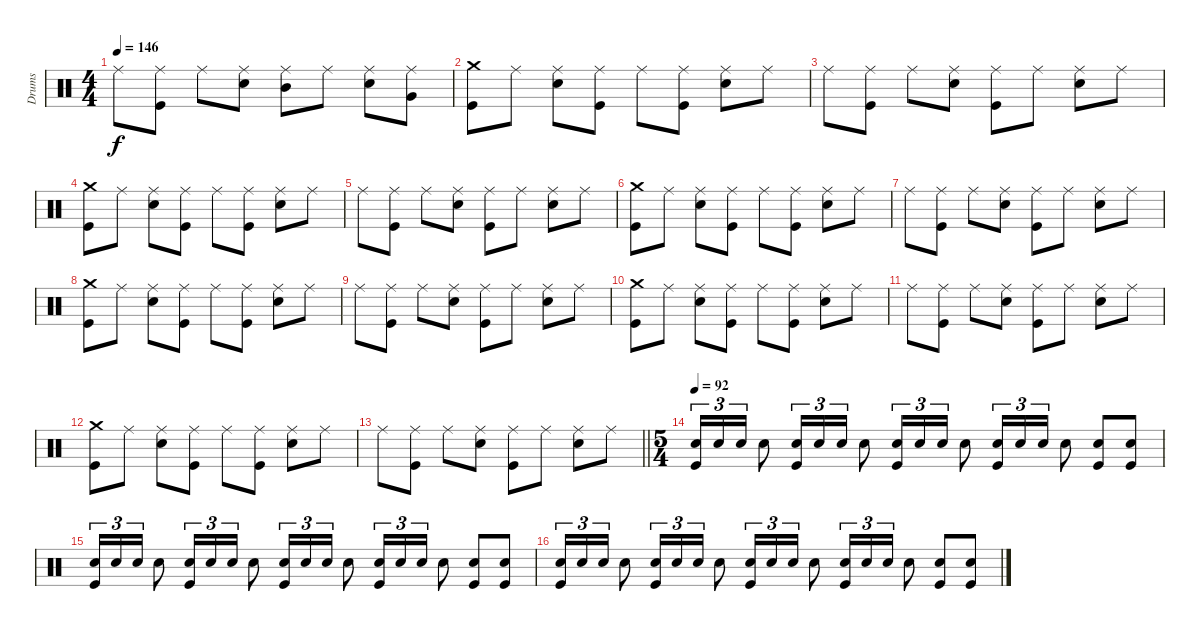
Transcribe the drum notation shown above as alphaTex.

\track ("Drums" "Drums") {instrument percussion}
\staff {score}
\articulation defaults
\ts (4 4)
\tempo 146
\clef neutral
\ks c "Ride (middle)".8{dy f}
("Ride (middle)" "Kick (hit)").8 "Ride (middle)".8 ("Ride (middle)" "Electric Snare (hit)").8 ("Ride (middle)" "Mid Tom (hit)").8 "Ride (middle)".8 ("Ride (middle)" "Electric Snare (hit)").8 ("Ride (middle)" "Very Low Tom (hit)").8 |
("Crash medium (hit)" "Kick (hit)").8 "Ride (middle)".8 ("Ride (middle)" "Electric Snare (hit)").8 ("Ride (middle)" "Kick (hit)").8 "Ride (middle)".8 ("Ride (middle)" "Kick (hit)").8 ("Ride (middle)" "Electric Snare (hit)").8 "Ride (middle)".8 |
"Ride (middle)".8 ("Ride (middle)" "Kick (hit)").8 "Ride (middle)".8 ("Ride (middle)" "Electric Snare (hit)").8 ("Ride (middle)" "Kick (hit)").8 "Ride (middle)".8 ("Ride (middle)" "Electric Snare (hit)").8 "Ride (middle)".8 |
("Crash medium (hit)" "Kick (hit)").8 "Ride (middle)".8 ("Ride (middle)" "Electric Snare (hit)").8 ("Ride (middle)" "Kick (hit)").8 "Ride (middle)".8 ("Ride (middle)" "Kick (hit)").8 ("Ride (middle)" "Electric Snare (hit)").8 "Ride (middle)".8 |
"Ride (middle)".8 ("Ride (middle)" "Kick (hit)").8 "Ride (middle)".8 ("Ride (middle)" "Electric Snare (hit)").8 ("Ride (middle)" "Kick (hit)").8 "Ride (middle)".8 ("Ride (middle)" "Electric Snare (hit)").8 "Ride (middle)".8 |
("Crash medium (hit)" "Kick (hit)").8 "Ride (middle)".8 ("Ride (middle)" "Electric Snare (hit)").8 ("Ride (middle)" "Kick (hit)").8 "Ride (middle)".8 ("Ride (middle)" "Kick (hit)").8 ("Ride (middle)" "Electric Snare (hit)").8 "Ride (middle)".8 |
"Ride (middle)".8 ("Ride (middle)" "Kick (hit)").8 "Ride (middle)".8 ("Ride (middle)" "Electric Snare (hit)").8 ("Ride (middle)" "Kick (hit)").8 "Ride (middle)".8 ("Ride (middle)" "Electric Snare (hit)").8 "Ride (middle)".8 |
("Crash medium (hit)" "Kick (hit)").8 "Ride (middle)".8 ("Ride (middle)" "Electric Snare (hit)").8 ("Ride (middle)" "Kick (hit)").8 "Ride (middle)".8 ("Ride (middle)" "Kick (hit)").8 ("Ride (middle)" "Electric Snare (hit)").8 "Ride (middle)".8 |
"Ride (middle)".8 ("Ride (middle)" "Kick (hit)").8 "Ride (middle)".8 ("Ride (middle)" "Electric Snare (hit)").8 ("Ride (middle)" "Kick (hit)").8 "Ride (middle)".8 ("Ride (middle)" "Electric Snare (hit)").8 "Ride (middle)".8 |
("Crash medium (hit)" "Kick (hit)").8 "Ride (middle)".8 ("Ride (middle)" "Electric Snare (hit)").8 ("Ride (middle)" "Kick (hit)").8 "Ride (middle)".8 ("Ride (middle)" "Kick (hit)").8 ("Ride (middle)" "Electric Snare (hit)").8 "Ride (middle)".8 |
"Ride (middle)".8 ("Ride (middle)" "Kick (hit)").8 "Ride (middle)".8 ("Ride (middle)" "Electric Snare (hit)").8 ("Ride (middle)" "Kick (hit)").8 "Ride (middle)".8 ("Ride (middle)" "Electric Snare (hit)").8 "Ride (middle)".8 |
("Crash medium (hit)" "Kick (hit)").8 "Ride (middle)".8 ("Ride (middle)" "Electric Snare (hit)").8 ("Ride (middle)" "Kick (hit)").8 "Ride (middle)".8 ("Ride (middle)" "Kick (hit)").8 ("Ride (middle)" "Electric Snare (hit)").8 "Ride (middle)".8 |
\barLineRight lightlight "Ride (middle)".8
("Ride (middle)" "Kick (hit)").8 "Ride (middle)".8 ("Ride (middle)" "Electric Snare (hit)").8 ("Ride (middle)" "Kick (hit)").8 "Ride (middle)".8 ("Ride (middle)" "Electric Snare (hit)").8 "Ride (middle)".8 |
\ts (5 4)
\tempo 92
("Electric Snare (hit)" "Kick (hit)").16{tu (3 2)} "Electric Snare (hit)".16{tu (3 2)} "Electric Snare (hit)".16{tu (3 2)} "Electric Snare (hit)".8 ("Electric Snare (hit)" "Kick (hit)").16{tu (3 2)} "Electric Snare (hit)".16{tu (3 2)} "Electric Snare (hit)".16{tu (3 2)} "Electric Snare (hit)".8 ("Electric Snare (hit)" "Kick (hit)").16{tu (3 2)} "Electric Snare (hit)".16{tu (3 2)} "Electric Snare (hit)".16{tu (3 2)} "Electric Snare (hit)".8 ("Electric Snare (hit)" "Kick (hit)").16{tu (3 2)} "Electric Snare (hit)".16{tu (3 2)} "Electric Snare (hit)".16{tu (3 2)} "Electric Snare (hit)".8 ("Electric Snare (hit)" "Kick (hit)").8 ("Electric Snare (hit)" "Kick (hit)").8 |
("Electric Snare (hit)" "Kick (hit)").16{tu (3 2)} "Electric Snare (hit)".16{tu (3 2)} "Electric Snare (hit)".16{tu (3 2)} "Electric Snare (hit)".8 ("Electric Snare (hit)" "Kick (hit)").16{tu (3 2)} "Electric Snare (hit)".16{tu (3 2)} "Electric Snare (hit)".16{tu (3 2)} "Electric Snare (hit)".8 ("Electric Snare (hit)" "Kick (hit)").16{tu (3 2)} "Electric Snare (hit)".16{tu (3 2)} "Electric Snare (hit)".16{tu (3 2)} "Electric Snare (hit)".8 ("Electric Snare (hit)" "Kick (hit)").16{tu (3 2)} "Electric Snare (hit)".16{tu (3 2)} "Electric Snare (hit)".16{tu (3 2)} "Electric Snare (hit)".8 ("Electric Snare (hit)" "Kick (hit)").8 ("Electric Snare (hit)" "Kick (hit)").8 |
("Electric Snare (hit)" "Kick (hit)").16{tu (3 2)} "Electric Snare (hit)".16{tu (3 2)} "Electric Snare (hit)".16{tu (3 2)} "Electric Snare (hit)".8 ("Electric Snare (hit)" "Kick (hit)").16{tu (3 2)} "Electric Snare (hit)".16{tu (3 2)} "Electric Snare (hit)".16{tu (3 2)} "Electric Snare (hit)".8 ("Electric Snare (hit)" "Kick (hit)").16{tu (3 2)} "Electric Snare (hit)".16{tu (3 2)} "Electric Snare (hit)".16{tu (3 2)} "Electric Snare (hit)".8 ("Electric Snare (hit)" "Kick (hit)").16{tu (3 2)} "Electric Snare (hit)".16{tu (3 2)} "Electric Snare (hit)".16{tu (3 2)} "Electric Snare (hit)".8 ("Electric Snare (hit)" "Kick (hit)").8 ("Electric Snare (hit)" "Kick (hit)").8
